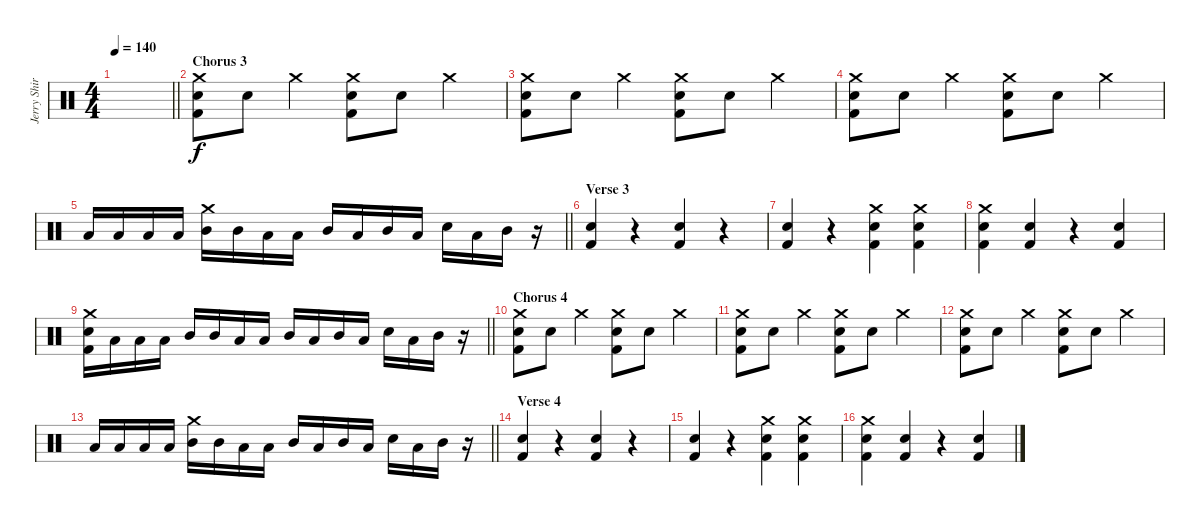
\track ("Jerry Shirley (Drums)" "Jerry Shir") {instrument percussion bank 255}
\staff {score}
\articulation defaults
\ts (4 4)
\tempo 140
\clef neutral
\barLineRight lightlight
\ks c
|
\section ("" "Chorus 3")
("Electric Snare (hit)" "Kick (hit) 2" "Crash medium (hit)").8 "Electric Snare (hit)".8 "Crash medium (hit)".4 ("Electric Snare (hit)" "Kick (hit) 2" "Crash medium (hit)").8 "Electric Snare (hit)".8 "Crash medium (hit)".4 |
("Electric Snare (hit)" "Kick (hit) 2" "Crash medium (hit)").8 "Electric Snare (hit)".8 "Crash medium (hit)".4 ("Electric Snare (hit)" "Kick (hit) 2" "Crash medium (hit)").8 "Electric Snare (hit)".8 "Crash medium (hit)".4 |
("Electric Snare (hit)" "Kick (hit) 2" "Crash medium (hit)").8 "Electric Snare (hit)".8 "Crash medium (hit)".4 ("Electric Snare (hit)" "Kick (hit) 2" "Crash medium (hit)").8 "Electric Snare (hit)".8 "Crash medium (hit)".4 |
\barLineRight lightlight "Low Tom (hit)".16 "Low Tom (hit)".16 "Low Tom (hit)".16 "Low Tom (hit)".16
("Mid Tom (hit)" "Crash medium (hit)").16 "Mid Tom (hit)".16 "Low Tom (hit)".16 "Low Tom (hit)".16 "Mid Tom (hit)".16 "Low Tom (hit)".16 "Mid Tom (hit)".16 "Low Tom (hit)".16 "Electric Snare (hit)".16 "Low Tom (hit)".16 "Mid Tom (hit)".16 r.16 |
\section ("" "Verse 3")
("Electric Snare (hit)" "Kick (hit) 2").4{volume 7} r.4 ("Electric Snare (hit)" "Kick (hit) 2").4 r.4 |
("Electric Snare (hit)" "Kick (hit) 2").4 r.4 ("Kick (hit) 2" "Electric Snare (hit)" "Crash medium (hit)").4{volume 16} ("Kick (hit) 2" "Electric Snare (hit)" "Crash medium (hit)").4 |
("Kick (hit) 2" "Electric Snare (hit)" "Crash medium (hit)").4 ("Electric Snare (hit)" "Kick (hit) 2").4{volume 6} r.4 ("Electric Snare (hit)" "Kick (hit) 2").4 |
\barLineRight lightlight
("Kick (hit) 2" "Electric Snare (hit)" "Crash medium (hit)").16{volume 16} "Low Tom (hit)".16{volume 13} "Low Tom (hit)".16 "Low Tom (hit)".16 "Mid Tom (hit)".16 "Mid Tom (hit)".16 "Low Tom (hit)".16 "Low Tom (hit)".16 "Mid Tom (hit)".16 "Low Tom (hit)".16 "Mid Tom (hit)".16 "Low Tom (hit)".16 "Electric Snare (hit)".16 "Low Tom (hit)".16 "Mid Tom (hit)".16 r.16 |
\section ("" "Chorus 4")
("Electric Snare (hit)" "Kick (hit) 2" "Crash medium (hit)").8 "Electric Snare (hit)".8 "Crash medium (hit)".4 ("Electric Snare (hit)" "Kick (hit) 2" "Crash medium (hit)").8 "Electric Snare (hit)".8 "Crash medium (hit)".4 |
("Electric Snare (hit)" "Kick (hit) 2" "Crash medium (hit)").8 "Electric Snare (hit)".8 "Crash medium (hit)".4 ("Electric Snare (hit)" "Kick (hit) 2" "Crash medium (hit)").8 "Electric Snare (hit)".8 "Crash medium (hit)".4 |
("Electric Snare (hit)" "Kick (hit) 2" "Crash medium (hit)").8 "Electric Snare (hit)".8 "Crash medium (hit)".4 ("Electric Snare (hit)" "Kick (hit) 2" "Crash medium (hit)").8 "Electric Snare (hit)".8 "Crash medium (hit)".4 |
\barLineRight lightlight "Low Tom (hit)".16 "Low Tom (hit)".16 "Low Tom (hit)".16 "Low Tom (hit)".16
("Mid Tom (hit)" "Crash medium (hit)").16 "Mid Tom (hit)".16 "Low Tom (hit)".16 "Low Tom (hit)".16 "Mid Tom (hit)".16 "Low Tom (hit)".16 "Mid Tom (hit)".16 "Low Tom (hit)".16 "Electric Snare (hit)".16 "Low Tom (hit)".16 "Mid Tom (hit)".16 r.16 |
\section ("" "Verse 4")
("Electric Snare (hit)" "Kick (hit) 2").4{volume 7} r.4 ("Electric Snare (hit)" "Kick (hit) 2").4 r.4 |
("Electric Snare (hit)" "Kick (hit) 2").4 r.4 ("Kick (hit) 2" "Electric Snare (hit)" "Crash medium (hit)").4{volume 16} ("Kick (hit) 2" "Electric Snare (hit)" "Crash medium (hit)").4 |
("Kick (hit) 2" "Electric Snare (hit)" "Crash medium (hit)").4 ("Electric Snare (hit)" "Kick (hit) 2").4{volume 6} r.4 ("Electric Snare (hit)" "Kick (hit) 2").4
